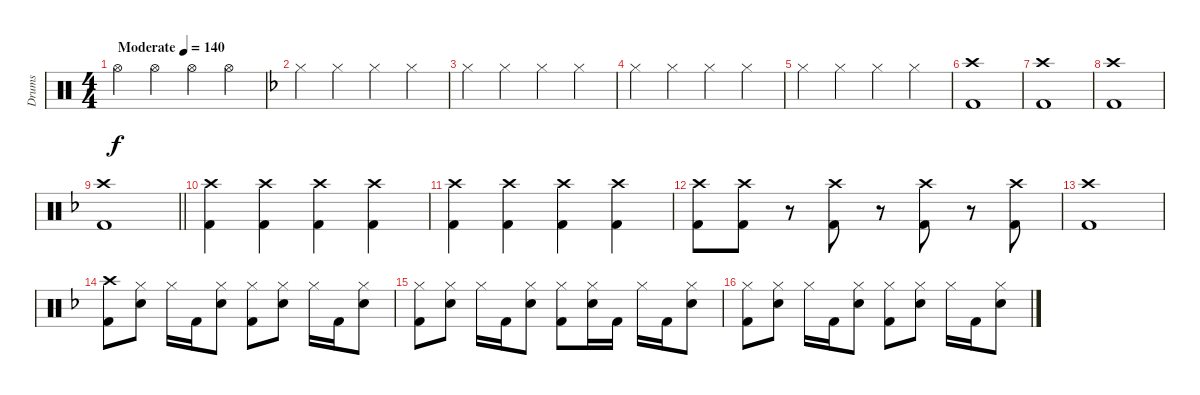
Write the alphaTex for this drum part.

\track ("Drums" "Drums") {instrument percussion}
\staff {score}
\articulation defaults
\ts (4 4)
\tempo (140 "Moderate")
\clef neutral
\ks c "Hi-Hat (open)".4{dy f} "Hi-Hat (open)".4 "Hi-Hat (open)".4 "Hi-Hat (open)".4
|
\ks dminor "Hi-Hat (closed)".4 "Hi-Hat (closed)".4 "Hi-Hat (closed)".4 "Hi-Hat (closed)".4
|
"Hi-Hat (closed)".4 "Hi-Hat (closed)".4 "Hi-Hat (closed)".4 "Hi-Hat (closed)".4 |
"Hi-Hat (closed)".4 "Hi-Hat (closed)".4 "Hi-Hat (closed)".4 "Hi-Hat (closed)".4 |
"Hi-Hat (closed)".4 "Hi-Hat (closed)".4 "Hi-Hat (closed)".4 "Hi-Hat (closed)".4 |
("Crash high (hit)" "Kick (hit) 2").1 |
("Crash high (hit)" "Kick (hit) 2").1 |
("Crash high (hit)" "Kick (hit) 2").1 |
\barLineRight lightlight
("Crash high (hit)" "Kick (hit) 2").1 |
("Crash high (hit)" "Kick (hit) 2").4 ("Crash high (hit)" "Kick (hit) 2").4 ("Crash high (hit)" "Kick (hit) 2").4 ("Crash high (hit)" "Kick (hit) 2").4 |
("Crash high (hit)" "Kick (hit) 2").4 ("Crash high (hit)" "Kick (hit) 2").4 ("Crash high (hit)" "Kick (hit) 2").4 ("Crash high (hit)" "Kick (hit) 2").4 |
("Crash high (hit)" "Kick (hit) 2").8 ("Crash high (hit)" "Kick (hit) 2").8 r.8 ("Crash high (hit)" "Kick (hit) 2").8 r.8 ("Crash high (hit)" "Kick (hit) 2").8 r.8 ("Crash high (hit)" "Kick (hit) 2").8 |
("Crash high (hit)" "Kick (hit) 2").1 |
("Crash high (hit)" "Kick (hit) 2").8 ("Hi-Hat (closed)" "Snare (hit) 2").8 "Hi-Hat (closed)".16 "Kick (hit) 2".16 ("Hi-Hat (closed)" "Snare (hit) 2").8 ("Hi-Hat (closed)" "Kick (hit) 2").8 ("Hi-Hat (closed)" "Snare (hit) 2").8 "Hi-Hat (closed)".16 "Kick (hit) 2".16 ("Hi-Hat (closed)" "Snare (hit) 2").8 |
("Hi-Hat (closed)" "Kick (hit) 2").8 ("Hi-Hat (closed)" "Snare (hit) 2").8 "Hi-Hat (closed)".16 "Kick (hit) 2".16 ("Hi-Hat (closed)" "Snare (hit) 2").8 ("Hi-Hat (closed)" "Kick (hit) 2").8 ("Hi-Hat (closed)" "Snare (hit) 2").16 "Kick (hit) 2".16 "Hi-Hat (closed)".16 "Kick (hit) 2".16 ("Hi-Hat (closed)" "Snare (hit) 2").8 |
("Hi-Hat (closed)" "Kick (hit) 2").8 ("Hi-Hat (closed)" "Snare (hit) 2").8 "Hi-Hat (closed)".16 "Kick (hit) 2".16 ("Hi-Hat (closed)" "Snare (hit) 2").8 ("Hi-Hat (closed)" "Kick (hit) 2").8 ("Hi-Hat (closed)" "Snare (hit) 2").8 "Hi-Hat (closed)".16 "Kick (hit) 2".16 ("Hi-Hat (closed)" "Snare (hit) 2").8
